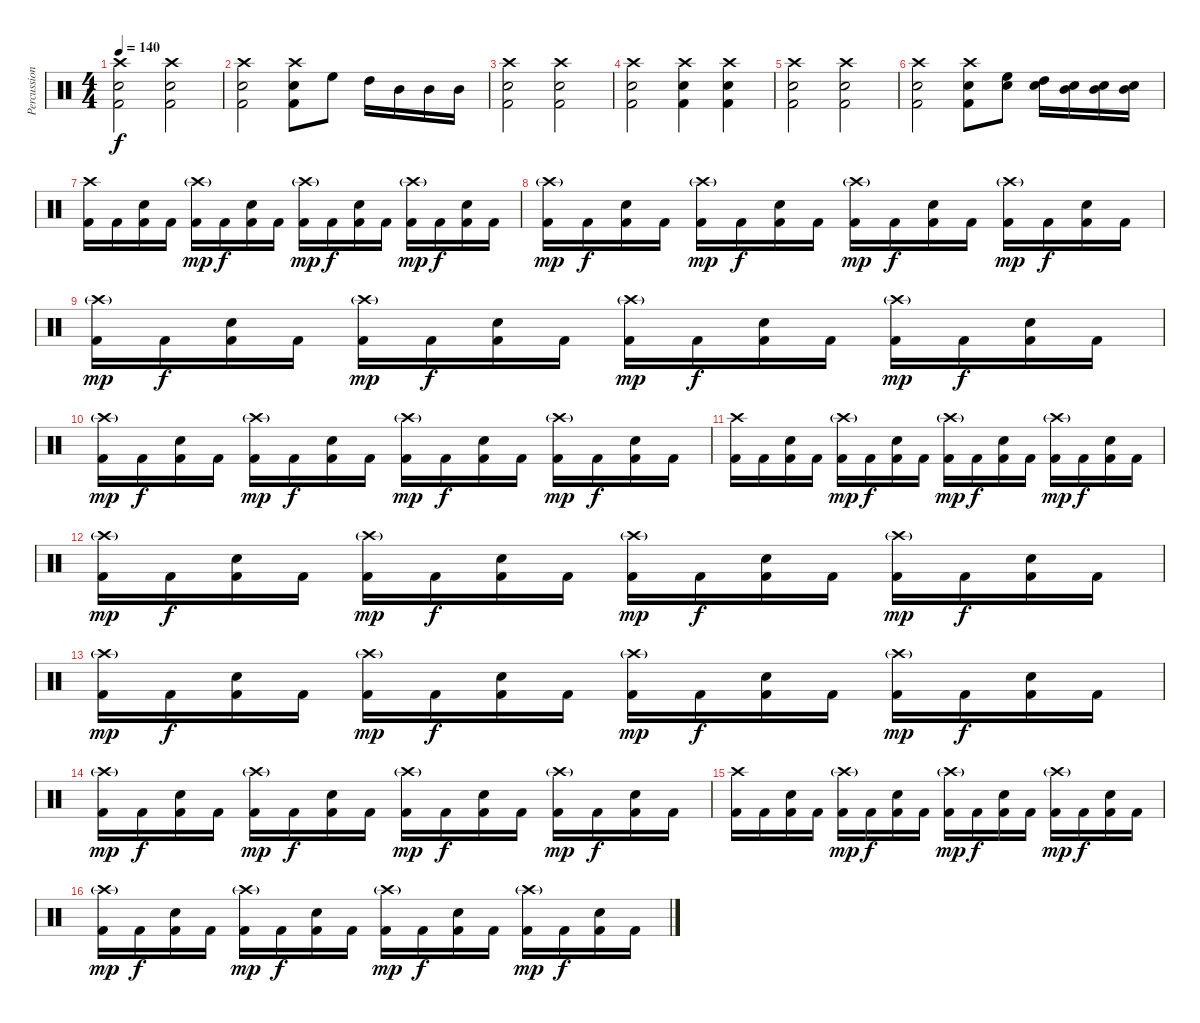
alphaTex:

\track ("Percussion" "Percussion") {instrument percussion}
\staff {score}
\articulation defaults
\ts (4 4)
\tempo 140
\clef neutral
\ks c
("Crash high (hit)" "Electric Snare (hit)" "Kick (hit) 2").2{dy f} ("Crash high (hit)" "Electric Snare (hit)" "Kick (hit) 2").2 |
("Crash high (hit)" "Electric Snare (hit)" "Kick (hit) 2").2 ("Crash high (hit)" "Electric Snare (hit)" "Kick (hit) 2").8 "High Floor Tom (hit)".8 "High Tom (hit)".16 "Mid Tom (hit)".16 "Mid Tom (hit)".16 "Mid Tom (hit)".16 |
("Crash high (hit)" "Electric Snare (hit)" "Kick (hit) 2").2 ("Crash high (hit)" "Electric Snare (hit)" "Kick (hit) 2").2 |
("Crash high (hit)" "Electric Snare (hit)" "Kick (hit) 2").2 ("Crash high (hit)" "Electric Snare (hit)" "Kick (hit) 2").4 ("Crash high (hit)" "Electric Snare (hit)" "Kick (hit) 2").4 |
("Crash high (hit)" "Electric Snare (hit)" "Kick (hit) 2").2 ("Crash high (hit)" "Electric Snare (hit)" "Kick (hit) 2").2 |
("Crash high (hit)" "Electric Snare (hit)" "Kick (hit) 2").2 ("Crash high (hit)" "Electric Snare (hit)" "Kick (hit) 2").8 ("High Floor Tom (hit)" "Electric Snare (hit)").8 ("High Tom (hit)" "Electric Snare (hit)").16 ("Mid Tom (hit)" "Electric Snare (hit)").16 ("Mid Tom (hit)" "Electric Snare (hit)").16 ("Mid Tom (hit)" "Electric Snare (hit)").16 |
("Crash high (hit)" "Kick (hit) 2").16 "Kick (hit) 2".16 ("Electric Snare (hit)" "Kick (hit) 2").16 "Kick (hit) 2".16 ("Crash high (hit)"{g} "Kick (hit) 2").16{dy mp} "Kick (hit) 2".16{dy f} ("Electric Snare (hit)" "Kick (hit) 2").16 "Kick (hit) 2".16 ("Crash high (hit)"{g} "Kick (hit) 2").16{dy mp} "Kick (hit) 2".16{dy f} ("Electric Snare (hit)" "Kick (hit) 2").16 "Kick (hit) 2".16 ("Crash high (hit)"{g} "Kick (hit) 2").16{dy mp} "Kick (hit) 2".16{dy f} ("Electric Snare (hit)" "Kick (hit) 2").16 "Kick (hit) 2".16 |
("Crash high (hit)"{g} "Kick (hit) 2").16{dy mp} "Kick (hit) 2".16{dy f} ("Electric Snare (hit)" "Kick (hit) 2").16 "Kick (hit) 2".16 ("Crash high (hit)"{g} "Kick (hit) 2").16{dy mp} "Kick (hit) 2".16{dy f} ("Electric Snare (hit)" "Kick (hit) 2").16 "Kick (hit) 2".16 ("Crash high (hit)"{g} "Kick (hit) 2").16{dy mp} "Kick (hit) 2".16{dy f} ("Electric Snare (hit)" "Kick (hit) 2").16 "Kick (hit) 2".16 ("Crash high (hit)"{g} "Kick (hit) 2").16{dy mp} "Kick (hit) 2".16{dy f} ("Electric Snare (hit)" "Kick (hit) 2").16 "Kick (hit) 2".16 |
("Crash high (hit)"{g} "Kick (hit) 2").16{dy mp} "Kick (hit) 2".16{dy f} ("Electric Snare (hit)" "Kick (hit) 2").16 "Kick (hit) 2".16 ("Crash high (hit)"{g} "Kick (hit) 2").16{dy mp} "Kick (hit) 2".16{dy f} ("Electric Snare (hit)" "Kick (hit) 2").16 "Kick (hit) 2".16 ("Crash high (hit)"{g} "Kick (hit) 2").16{dy mp} "Kick (hit) 2".16{dy f} ("Electric Snare (hit)" "Kick (hit) 2").16 "Kick (hit) 2".16 ("Crash high (hit)"{g} "Kick (hit) 2").16{dy mp} "Kick (hit) 2".16{dy f} ("Electric Snare (hit)" "Kick (hit) 2").16 "Kick (hit) 2".16 |
("Crash high (hit)"{g} "Kick (hit) 2").16{dy mp} "Kick (hit) 2".16{dy f} ("Electric Snare (hit)" "Kick (hit) 2").16 "Kick (hit) 2".16 ("Crash high (hit)"{g} "Kick (hit) 2").16{dy mp} "Kick (hit) 2".16{dy f} ("Electric Snare (hit)" "Kick (hit) 2").16 "Kick (hit) 2".16 ("Crash high (hit)"{g} "Kick (hit) 2").16{dy mp} "Kick (hit) 2".16{dy f} ("Electric Snare (hit)" "Kick (hit) 2").16 "Kick (hit) 2".16 ("Crash high (hit)"{g} "Kick (hit) 2").16{dy mp} "Kick (hit) 2".16{dy f} ("Electric Snare (hit)" "Kick (hit) 2").16 "Kick (hit) 2".16 |
("Crash high (hit)" "Kick (hit) 2").16 "Kick (hit) 2".16 ("Electric Snare (hit)" "Kick (hit) 2").16 "Kick (hit) 2".16 ("Crash high (hit)"{g} "Kick (hit) 2").16{dy mp} "Kick (hit) 2".16{dy f} ("Electric Snare (hit)" "Kick (hit) 2").16 "Kick (hit) 2".16 ("Crash high (hit)"{g} "Kick (hit) 2").16{dy mp} "Kick (hit) 2".16{dy f} ("Electric Snare (hit)" "Kick (hit) 2").16 "Kick (hit) 2".16 ("Crash high (hit)"{g} "Kick (hit) 2").16{dy mp} "Kick (hit) 2".16{dy f} ("Electric Snare (hit)" "Kick (hit) 2").16 "Kick (hit) 2".16 |
("Crash high (hit)"{g} "Kick (hit) 2").16{dy mp} "Kick (hit) 2".16{dy f} ("Electric Snare (hit)" "Kick (hit) 2").16 "Kick (hit) 2".16 ("Crash high (hit)"{g} "Kick (hit) 2").16{dy mp} "Kick (hit) 2".16{dy f} ("Electric Snare (hit)" "Kick (hit) 2").16 "Kick (hit) 2".16 ("Crash high (hit)"{g} "Kick (hit) 2").16{dy mp} "Kick (hit) 2".16{dy f} ("Electric Snare (hit)" "Kick (hit) 2").16 "Kick (hit) 2".16 ("Crash high (hit)"{g} "Kick (hit) 2").16{dy mp} "Kick (hit) 2".16{dy f} ("Electric Snare (hit)" "Kick (hit) 2").16 "Kick (hit) 2".16 |
("Crash high (hit)"{g} "Kick (hit) 2").16{dy mp} "Kick (hit) 2".16{dy f} ("Electric Snare (hit)" "Kick (hit) 2").16 "Kick (hit) 2".16 ("Crash high (hit)"{g} "Kick (hit) 2").16{dy mp} "Kick (hit) 2".16{dy f} ("Electric Snare (hit)" "Kick (hit) 2").16 "Kick (hit) 2".16 ("Crash high (hit)"{g} "Kick (hit) 2").16{dy mp} "Kick (hit) 2".16{dy f} ("Electric Snare (hit)" "Kick (hit) 2").16 "Kick (hit) 2".16 ("Crash high (hit)"{g} "Kick (hit) 2").16{dy mp} "Kick (hit) 2".16{dy f} ("Electric Snare (hit)" "Kick (hit) 2").16 "Kick (hit) 2".16 |
("Crash high (hit)"{g} "Kick (hit) 2").16{dy mp} "Kick (hit) 2".16{dy f} ("Electric Snare (hit)" "Kick (hit) 2").16 "Kick (hit) 2".16 ("Crash high (hit)"{g} "Kick (hit) 2").16{dy mp} "Kick (hit) 2".16{dy f} ("Electric Snare (hit)" "Kick (hit) 2").16 "Kick (hit) 2".16 ("Crash high (hit)"{g} "Kick (hit) 2").16{dy mp} "Kick (hit) 2".16{dy f} ("Electric Snare (hit)" "Kick (hit) 2").16 "Kick (hit) 2".16 ("Crash high (hit)"{g} "Kick (hit) 2").16{dy mp} "Kick (hit) 2".16{dy f} ("Electric Snare (hit)" "Kick (hit) 2").16 "Kick (hit) 2".16 |
("Crash high (hit)" "Kick (hit) 2").16 "Kick (hit) 2".16 ("Electric Snare (hit)" "Kick (hit) 2").16 "Kick (hit) 2".16 ("Crash high (hit)"{g} "Kick (hit) 2").16{dy mp} "Kick (hit) 2".16{dy f} ("Electric Snare (hit)" "Kick (hit) 2").16 "Kick (hit) 2".16 ("Crash high (hit)"{g} "Kick (hit) 2").16{dy mp} "Kick (hit) 2".16{dy f} ("Electric Snare (hit)" "Kick (hit) 2").16 "Kick (hit) 2".16 ("Crash high (hit)"{g} "Kick (hit) 2").16{dy mp} "Kick (hit) 2".16{dy f} ("Electric Snare (hit)" "Kick (hit) 2").16 "Kick (hit) 2".16 |
("Crash high (hit)"{g} "Kick (hit) 2").16{dy mp} "Kick (hit) 2".16{dy f} ("Electric Snare (hit)" "Kick (hit) 2").16 "Kick (hit) 2".16 ("Crash high (hit)"{g} "Kick (hit) 2").16{dy mp} "Kick (hit) 2".16{dy f} ("Electric Snare (hit)" "Kick (hit) 2").16 "Kick (hit) 2".16 ("Crash high (hit)"{g} "Kick (hit) 2").16{dy mp} "Kick (hit) 2".16{dy f} ("Electric Snare (hit)" "Kick (hit) 2").16 "Kick (hit) 2".16 ("Crash high (hit)"{g} "Kick (hit) 2").16{dy mp} "Kick (hit) 2".16{dy f} ("Electric Snare (hit)" "Kick (hit) 2").16 "Kick (hit) 2".16
